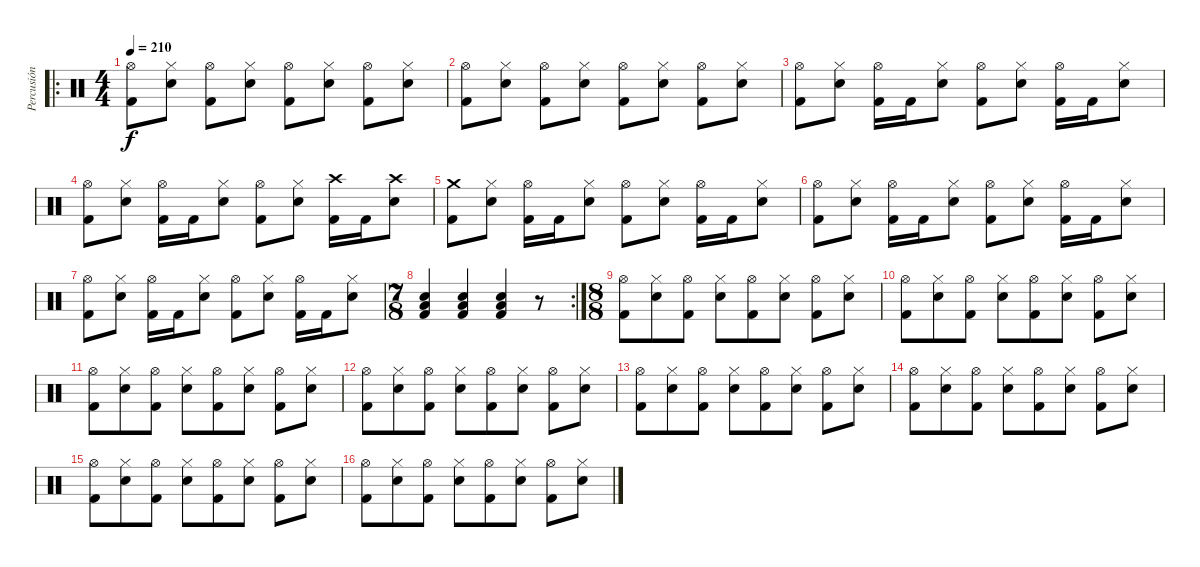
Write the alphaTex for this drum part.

\track ("Percusión" "Percusión") {instrument percussion}
\staff {score}
\articulation defaults
\ro
\ts (4 4)
\tempo 210
\clef neutral
\ks c
("Hi-Hat (open)" "Kick (hit) 2").8{dy f} ("Hi-Hat (closed)" "Electric Snare (hit)").8 ("Hi-Hat (open)" "Kick (hit) 2").8 ("Hi-Hat (closed)" "Electric Snare (hit)").8 ("Hi-Hat (open)" "Kick (hit) 2").8 ("Hi-Hat (closed)" "Electric Snare (hit)").8 ("Hi-Hat (open)" "Kick (hit) 2").8 ("Hi-Hat (closed)" "Electric Snare (hit)").8 |
("Hi-Hat (open)" "Kick (hit) 2").8 ("Hi-Hat (closed)" "Electric Snare (hit)").8 ("Hi-Hat (open)" "Kick (hit) 2").8 ("Hi-Hat (closed)" "Electric Snare (hit)").8 ("Hi-Hat (open)" "Kick (hit) 2").8 ("Hi-Hat (closed)" "Electric Snare (hit)").8 ("Hi-Hat (open)" "Kick (hit) 2").8 ("Hi-Hat (closed)" "Electric Snare (hit)").8 |
("Hi-Hat (open)" "Kick (hit) 2").8 ("Hi-Hat (closed)" "Electric Snare (hit)").8 ("Hi-Hat (open)" "Kick (hit) 2").16 "Kick (hit) 2".16 ("Hi-Hat (closed)" "Electric Snare (hit)").8 ("Hi-Hat (open)" "Kick (hit) 2").8 ("Hi-Hat (closed)" "Electric Snare (hit)").8 ("Hi-Hat (open)" "Kick (hit) 2").16 "Kick (hit) 2".16 ("Hi-Hat (closed)" "Electric Snare (hit)").8 |
("Hi-Hat (open)" "Kick (hit) 2").8 ("Hi-Hat (closed)" "Electric Snare (hit)").8 ("Hi-Hat (open)" "Kick (hit) 2").16 "Kick (hit) 2".16 ("Hi-Hat (closed)" "Electric Snare (hit)").8 ("Hi-Hat (open)" "Kick (hit) 2").8 ("Hi-Hat (closed)" "Electric Snare (hit)").8 ("Crash high (hit)" "Kick (hit) 2").16 "Kick (hit) 2".16 ("Crash high (hit)" "Electric Snare (hit)").8 |
("Crash medium (hit)" "Kick (hit) 2").8 ("Hi-Hat (closed)" "Electric Snare (hit)").8 ("Hi-Hat (open)" "Kick (hit) 2").16 "Kick (hit) 2".16 ("Hi-Hat (closed)" "Electric Snare (hit)").8 ("Hi-Hat (open)" "Kick (hit) 2").8 ("Hi-Hat (closed)" "Electric Snare (hit)").8 ("Hi-Hat (open)" "Kick (hit) 2").16 "Kick (hit) 2".16 ("Hi-Hat (closed)" "Electric Snare (hit)").8 |
("Hi-Hat (open)" "Kick (hit) 2").8 ("Hi-Hat (closed)" "Electric Snare (hit)").8 ("Hi-Hat (open)" "Kick (hit) 2").16 "Kick (hit) 2".16 ("Hi-Hat (closed)" "Electric Snare (hit)").8 ("Hi-Hat (open)" "Kick (hit) 2").8 ("Hi-Hat (closed)" "Electric Snare (hit)").8 ("Hi-Hat (open)" "Kick (hit) 2").16 "Kick (hit) 2".16 ("Hi-Hat (closed)" "Electric Snare (hit)").8 |
("Hi-Hat (open)" "Kick (hit) 2").8 ("Hi-Hat (closed)" "Electric Snare (hit)").8 ("Hi-Hat (open)" "Kick (hit) 2").16 "Kick (hit) 2".16 ("Hi-Hat (closed)" "Electric Snare (hit)").8 ("Hi-Hat (open)" "Kick (hit) 2").8 ("Hi-Hat (closed)" "Electric Snare (hit)").8 ("Hi-Hat (open)" "Kick (hit) 2").16 "Kick (hit) 2".16 ("Hi-Hat (closed)" "Electric Snare (hit)").8 |
\rc 2
\ts (7 8)
("Electric Snare (hit)" "Kick (hit) 2" "Low Floor Tom (hit)").4 ("Electric Snare (hit)" "Kick (hit) 2" "Low Floor Tom (hit)").4 ("Electric Snare (hit)" "Kick (hit) 2" "Low Floor Tom (hit)").4 r.8 |
\ts (8 8)
("Hi-Hat (open)" "Kick (hit) 2").8 ("Hi-Hat (closed)" "Electric Snare (hit)").8 ("Hi-Hat (open)" "Kick (hit) 2").8 ("Hi-Hat (closed)" "Electric Snare (hit)").8 ("Hi-Hat (open)" "Kick (hit) 2").8 ("Hi-Hat (closed)" "Electric Snare (hit)").8 ("Hi-Hat (open)" "Kick (hit) 2").8 ("Hi-Hat (closed)" "Electric Snare (hit)").8 |
("Hi-Hat (open)" "Kick (hit) 2").8 ("Hi-Hat (closed)" "Electric Snare (hit)").8 ("Hi-Hat (open)" "Kick (hit) 2").8 ("Hi-Hat (closed)" "Electric Snare (hit)").8 ("Hi-Hat (open)" "Kick (hit) 2").8 ("Hi-Hat (closed)" "Electric Snare (hit)").8 ("Hi-Hat (open)" "Kick (hit) 2").8 ("Hi-Hat (closed)" "Electric Snare (hit)").8 |
("Hi-Hat (open)" "Kick (hit) 2").8 ("Hi-Hat (closed)" "Electric Snare (hit)").8 ("Hi-Hat (open)" "Kick (hit) 2").8 ("Hi-Hat (closed)" "Electric Snare (hit)").8 ("Hi-Hat (open)" "Kick (hit) 2").8 ("Hi-Hat (closed)" "Electric Snare (hit)").8 ("Hi-Hat (open)" "Kick (hit) 2").8 ("Hi-Hat (closed)" "Electric Snare (hit)").8 |
("Hi-Hat (open)" "Kick (hit) 2").8 ("Hi-Hat (closed)" "Electric Snare (hit)").8 ("Hi-Hat (open)" "Kick (hit) 2").8 ("Hi-Hat (closed)" "Electric Snare (hit)").8 ("Hi-Hat (open)" "Kick (hit) 2").8 ("Hi-Hat (closed)" "Electric Snare (hit)").8 ("Hi-Hat (open)" "Kick (hit) 2").8 ("Hi-Hat (closed)" "Electric Snare (hit)").8 |
("Hi-Hat (open)" "Kick (hit) 2").8 ("Hi-Hat (closed)" "Electric Snare (hit)").8 ("Hi-Hat (open)" "Kick (hit) 2").8 ("Hi-Hat (closed)" "Electric Snare (hit)").8 ("Hi-Hat (open)" "Kick (hit) 2").8 ("Hi-Hat (closed)" "Electric Snare (hit)").8 ("Hi-Hat (open)" "Kick (hit) 2").8 ("Hi-Hat (closed)" "Electric Snare (hit)").8 |
("Hi-Hat (open)" "Kick (hit) 2").8 ("Hi-Hat (closed)" "Electric Snare (hit)").8 ("Hi-Hat (open)" "Kick (hit) 2").8 ("Hi-Hat (closed)" "Electric Snare (hit)").8 ("Hi-Hat (open)" "Kick (hit) 2").8 ("Hi-Hat (closed)" "Electric Snare (hit)").8 ("Hi-Hat (open)" "Kick (hit) 2").8 ("Hi-Hat (closed)" "Electric Snare (hit)").8 |
("Hi-Hat (open)" "Kick (hit) 2").8 ("Hi-Hat (closed)" "Electric Snare (hit)").8 ("Hi-Hat (open)" "Kick (hit) 2").8 ("Hi-Hat (closed)" "Electric Snare (hit)").8 ("Hi-Hat (open)" "Kick (hit) 2").8 ("Hi-Hat (closed)" "Electric Snare (hit)").8 ("Hi-Hat (open)" "Kick (hit) 2").8 ("Hi-Hat (closed)" "Electric Snare (hit)").8 |
("Hi-Hat (open)" "Kick (hit) 2").8 ("Hi-Hat (closed)" "Electric Snare (hit)").8 ("Hi-Hat (open)" "Kick (hit) 2").8 ("Hi-Hat (closed)" "Electric Snare (hit)").8 ("Hi-Hat (open)" "Kick (hit) 2").8 ("Hi-Hat (closed)" "Electric Snare (hit)").8 ("Hi-Hat (open)" "Kick (hit) 2").8 ("Hi-Hat (closed)" "Electric Snare (hit)").8
